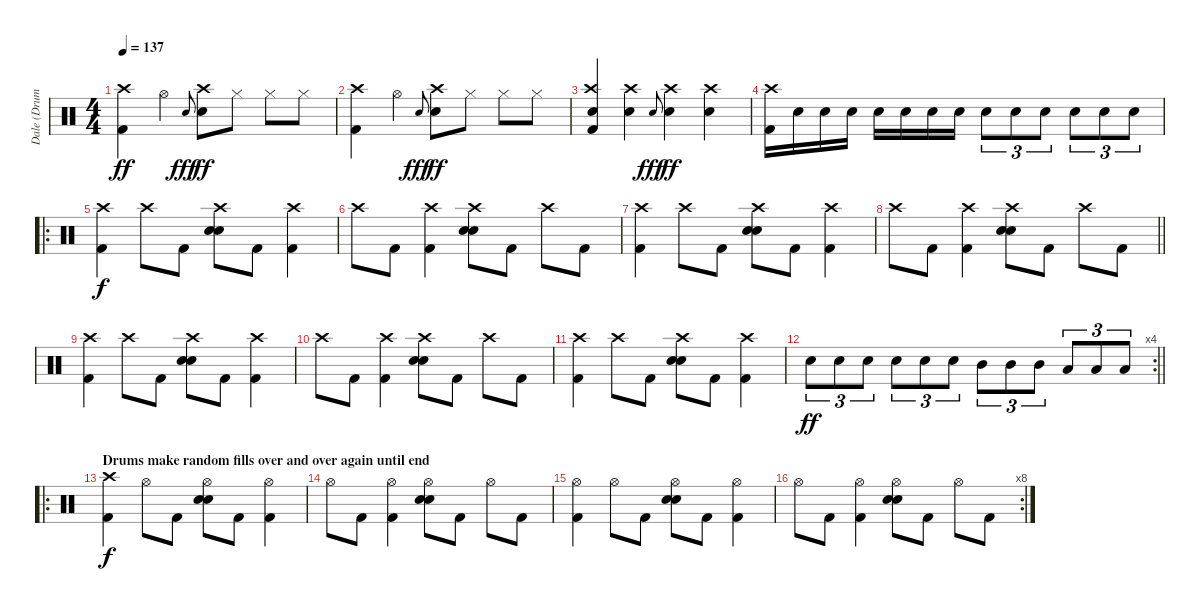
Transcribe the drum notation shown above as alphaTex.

\track ("Dale (Drums 1)" "Dale (Drum") {instrument percussion}
\staff {score}
\articulation defaults
\ts (4 4)
\tempo 137
\clef neutral
\ks c
("Kick (hit) 2" "Crash high (hit)").4{dy ff} "Hi-Hat (open)".4 "Snare (hit) 2".8{gr onbeat dy fff} ("Snare (hit) 2" "Crash high (hit)").8{dy ff} "Hi-Hat (closed)".8 "Hi-Hat (closed)".8 "Hi-Hat (closed)".8 |
("Kick (hit) 2" "Crash high (hit)").4 "Hi-Hat (open)".4 "Snare (hit) 2".8{gr onbeat dy fff} ("Snare (hit) 2" "Crash high (hit)").8{dy ff} "Hi-Hat (closed)".8 "Hi-Hat (closed)".8 "Hi-Hat (closed)".8 |
("Kick (hit) 2" "Crash high (hit)" "Snare (hit) 2").4 ("Crash high (hit)" "Snare (hit) 2").4 "Snare (hit) 2".8{gr onbeat dy fff} ("Snare (hit) 2" "Crash high (hit)").4{dy ff} ("Crash high (hit)" "Snare (hit) 2").4 |
("Crash high (hit)" "Kick (hit) 2").16 "Snare (hit) 2".16 "Snare (hit) 2".16 "Snare (hit) 2".16 "Snare (hit) 2".16 "Snare (hit) 2".16 "Snare (hit) 2".16 "Snare (hit) 2".16 "Snare (hit) 2".8{tu (3 2)} "Snare (hit) 2".8{tu (3 2)} "Snare (hit) 2".8{tu (3 2)} "Snare (hit) 2".8{tu (3 2)} "Snare (hit) 2".8{tu (3 2)} "Snare (hit) 2".8{tu (3 2)} |
\ro
("Crash high (hit)" "Kick (hit) 2").4{dy f} "Crash high (hit)".8 "Kick (hit) 2".8 ("Crash high (hit)" "Snare (hit) 2" "Electric Snare (hit)").8 "Kick (hit) 2".8 ("Kick (hit) 2" "Crash high (hit)").4 |
"Crash high (hit)".8 "Kick (hit) 2".8 ("Crash high (hit)" "Kick (hit) 2").4 ("Crash high (hit)" "Snare (hit) 2" "Electric Snare (hit)").8 "Kick (hit) 2".8 "Crash high (hit)".8 "Kick (hit) 2".8 |
("Crash high (hit)" "Kick (hit) 2").4 "Crash high (hit)".8 "Kick (hit) 2".8 ("Crash high (hit)" "Snare (hit) 2" "Electric Snare (hit)").8 "Kick (hit) 2".8 ("Kick (hit) 2" "Crash high (hit)").4 |
\barLineRight lightlight "Crash high (hit)".8 "Kick (hit) 2".8
("Crash high (hit)" "Kick (hit) 2").4 ("Crash high (hit)" "Snare (hit) 2" "Electric Snare (hit)").8 "Kick (hit) 2".8 "Crash high (hit)".8 "Kick (hit) 2".8 |
("Crash high (hit)" "Kick (hit) 2").4 "Crash high (hit)".8 "Kick (hit) 2".8 ("Crash high (hit)" "Snare (hit) 2" "Electric Snare (hit)").8 "Kick (hit) 2".8 ("Kick (hit) 2" "Crash high (hit)").4 |
"Crash high (hit)".8 "Kick (hit) 2".8 ("Crash high (hit)" "Kick (hit) 2").4 ("Crash high (hit)" "Snare (hit) 2" "Electric Snare (hit)").8 "Kick (hit) 2".8 "Crash high (hit)".8 "Kick (hit) 2".8 |
("Crash high (hit)" "Kick (hit) 2").4 "Crash high (hit)".8 "Kick (hit) 2".8 ("Crash high (hit)" "Snare (hit) 2" "Electric Snare (hit)").8 "Kick (hit) 2".8 ("Kick (hit) 2" "Crash high (hit)").4 |
\rc 4
\barLineRight lightlight "Snare (hit) 2".8{tu (3 2) dy ff} "Snare (hit) 2".8{tu (3 2)} "Snare (hit) 2".8{tu (3 2)} "Snare (hit) 2".8{tu (3 2)} "Snare (hit) 2".8{tu (3 2)} "Snare (hit) 2".8{tu (3 2)} "Mid Tom (hit)".8{tu (3 2)} "Mid Tom (hit)".8{tu (3 2)} "Mid Tom (hit)".8{tu (3 2)} "Low Tom (hit)".8{tu (3 2)} "Low Tom (hit)".8{tu (3 2)} "Low Tom (hit)".8{tu (3 2)}
|
\ro
\section ("" "Drums make random fills over and over again until end")
("Crash high (hit)" "Kick (hit) 2").4{dy f} "Hi-Hat (open)".8 "Kick (hit) 2".8 ("Hi-Hat (open)" "Snare (hit) 2" "Electric Snare (hit)").8 "Kick (hit) 2".8 ("Kick (hit) 2" "Hi-Hat (open)").4 |
"Hi-Hat (open)".8 "Kick (hit) 2".8 ("Hi-Hat (open)" "Kick (hit) 2").4 ("Hi-Hat (open)" "Snare (hit) 2" "Electric Snare (hit)").8 "Kick (hit) 2".8 "Hi-Hat (open)".8 "Kick (hit) 2".8 |
("Hi-Hat (open)" "Kick (hit) 2").4 "Hi-Hat (open)".8 "Kick (hit) 2".8 ("Hi-Hat (open)" "Snare (hit) 2" "Electric Snare (hit)").8 "Kick (hit) 2".8 ("Kick (hit) 2" "Hi-Hat (open)").4 |
\rc 8 "Hi-Hat (open)".8 "Kick (hit) 2".8
("Hi-Hat (open)" "Kick (hit) 2").4 ("Hi-Hat (open)" "Snare (hit) 2" "Electric Snare (hit)").8 "Kick (hit) 2".8 "Hi-Hat (open)".8 "Kick (hit) 2".8
